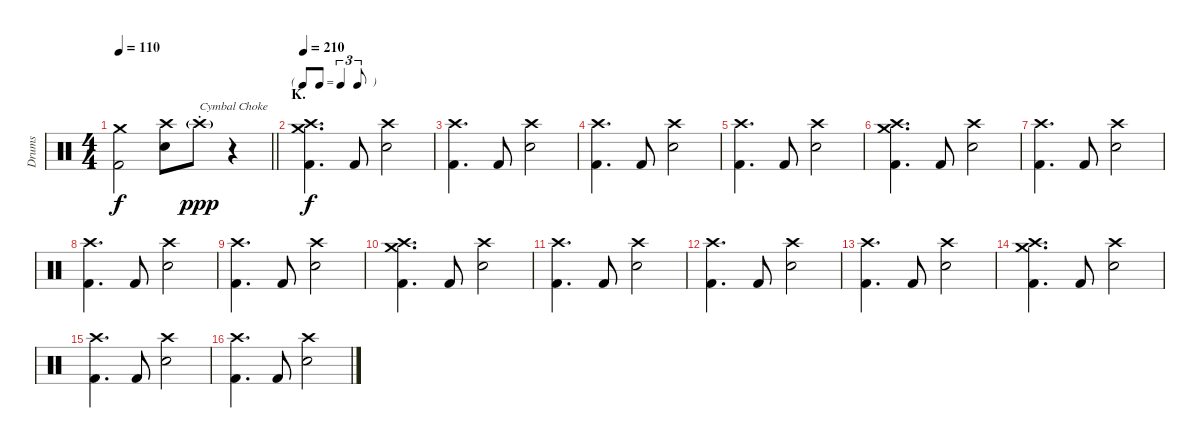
\track ("Drums" "Drums") {instrument percussion}
\staff {score}
\articulation defaults
\ts (4 4)
\tempo 110
\clef neutral
\barLineRight lightlight
\ks c
("Crash medium (hit)" "Kick (hit) 2").2{dy f} ("Crash high (hit)" "Electric Snare (hit)").8 "Crash high (hit)"{g st}.8{txt "Cymbal Choke" dy ppp} r.4 |
\tf triplet8th
\section ("" "K.")
\tempo 210
("Crash medium (hit)" "Crash high (hit)" "Kick (hit) 2").4{d dy f} "Kick (hit) 2".8 ("Crash high (hit)" "Electric Snare (hit)").2 |
("Crash high (hit)" "Kick (hit) 2").4{d} "Kick (hit) 2".8 ("Crash high (hit)" "Electric Snare (hit)").2 |
("Crash high (hit)" "Kick (hit) 2").4{d} "Kick (hit) 2".8 ("Crash high (hit)" "Electric Snare (hit)").2 |
("Crash high (hit)" "Kick (hit) 2").4{d} "Kick (hit) 2".8 ("Crash high (hit)" "Electric Snare (hit)").2 |
("Crash medium (hit)" "Crash high (hit)" "Kick (hit) 2").4{d} "Kick (hit) 2".8 ("Crash high (hit)" "Electric Snare (hit)").2 |
("Crash high (hit)" "Kick (hit) 2").4{d} "Kick (hit) 2".8 ("Crash high (hit)" "Electric Snare (hit)").2 |
("Crash high (hit)" "Kick (hit) 2").4{d} "Kick (hit) 2".8 ("Crash high (hit)" "Electric Snare (hit)").2 |
("Crash high (hit)" "Kick (hit) 2").4{d} "Kick (hit) 2".8 ("Crash high (hit)" "Electric Snare (hit)").2 |
("Crash medium (hit)" "Crash high (hit)" "Kick (hit) 2").4{d} "Kick (hit) 2".8 ("Crash high (hit)" "Electric Snare (hit)").2 |
("Crash high (hit)" "Kick (hit) 2").4{d} "Kick (hit) 2".8 ("Crash high (hit)" "Electric Snare (hit)").2 |
("Crash high (hit)" "Kick (hit) 2").4{d} "Kick (hit) 2".8 ("Crash high (hit)" "Electric Snare (hit)").2 |
("Crash high (hit)" "Kick (hit) 2").4{d} "Kick (hit) 2".8 ("Crash high (hit)" "Electric Snare (hit)").2 |
("Crash medium (hit)" "Crash high (hit)" "Kick (hit) 2").4{d} "Kick (hit) 2".8 ("Crash high (hit)" "Electric Snare (hit)").2 |
("Crash high (hit)" "Kick (hit) 2").4{d} "Kick (hit) 2".8 ("Crash high (hit)" "Electric Snare (hit)").2 |
("Crash high (hit)" "Kick (hit) 2").4{d} "Kick (hit) 2".8 ("Crash high (hit)" "Electric Snare (hit)").2
